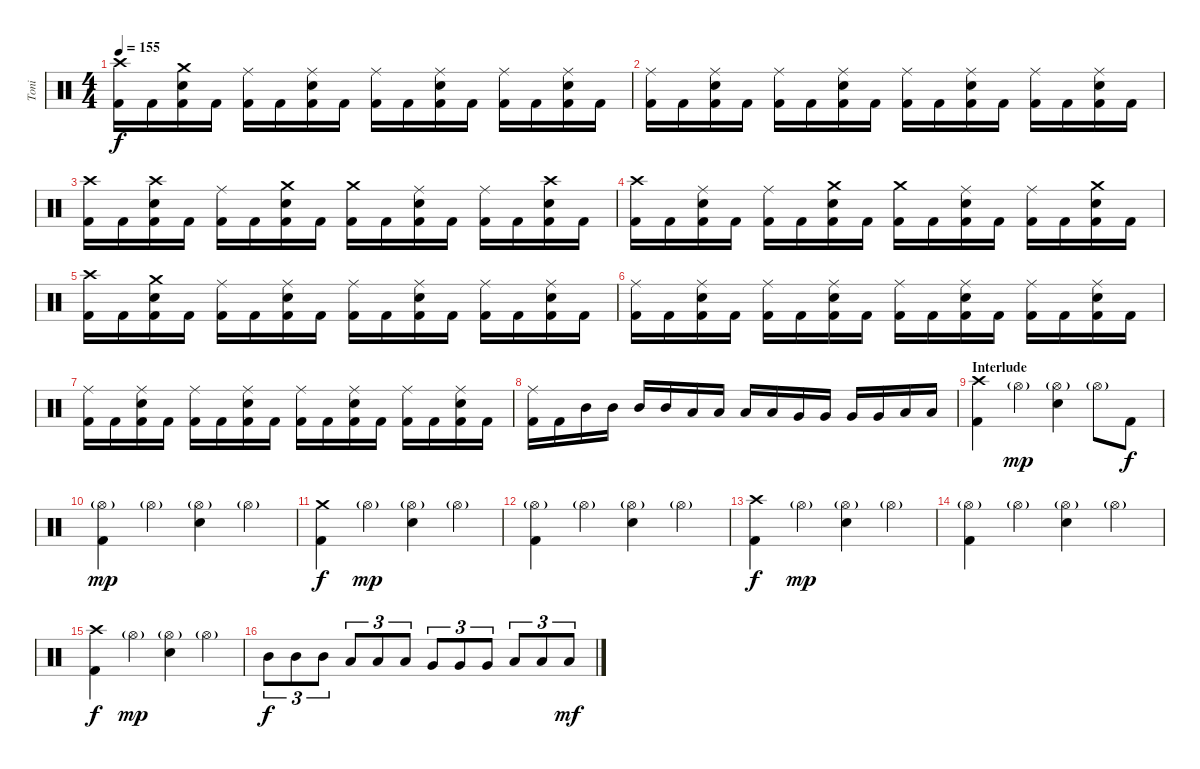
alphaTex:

\track ("Toni" "Toni") {instrument percussion}
\staff {score}
\articulation defaults
\ts (4 4)
\tempo 155
\clef neutral
\ks c
("Crash high (hit)" "Kick (hit) 2").16{dy f} "Kick (hit) 2".16 ("Crash medium (hit)" "Electric Snare (hit)" "Kick (hit) 2").16 "Kick (hit) 2".16 ("Ride (middle)" "Kick (hit) 2").16 "Kick (hit) 2".16 ("Ride (middle)" "Electric Snare (hit)" "Kick (hit) 2").16 "Kick (hit) 2".16 ("Ride (middle)" "Kick (hit) 2").16 "Kick (hit) 2".16 ("Ride (middle)" "Electric Snare (hit)" "Kick (hit) 2").16 "Kick (hit) 2".16 ("Ride (middle)" "Kick (hit) 2").16 "Kick (hit) 2".16 ("Ride (middle)" "Electric Snare (hit)" "Kick (hit) 2").16 "Kick (hit) 2".16 |
("Ride (middle)" "Kick (hit) 2").16 "Kick (hit) 2".16 ("Ride (middle)" "Electric Snare (hit)" "Kick (hit) 2").16 "Kick (hit) 2".16 ("Ride (middle)" "Kick (hit) 2").16 "Kick (hit) 2".16 ("Ride (middle)" "Electric Snare (hit)" "Kick (hit) 2").16 "Kick (hit) 2".16 ("Ride (middle)" "Kick (hit) 2").16 "Kick (hit) 2".16 ("Ride (middle)" "Electric Snare (hit)" "Kick (hit) 2").16 "Kick (hit) 2".16 ("Ride (middle)" "Kick (hit) 2").16 "Kick (hit) 2".16 ("Ride (middle)" "Electric Snare (hit)" "Kick (hit) 2").16 "Kick (hit) 2".16 |
("Crash high (hit)" "Kick (hit) 2").16 "Kick (hit) 2".16 ("Crash high (hit)" "Electric Snare (hit)" "Kick (hit) 2").16 "Kick (hit) 2".16 ("Ride (middle)" "Kick (hit) 2").16 "Kick (hit) 2".16 ("Crash medium (hit)" "Electric Snare (hit)" "Kick (hit) 2").16 "Kick (hit) 2".16 ("Crash medium (hit)" "Kick (hit) 2").16 "Kick (hit) 2".16 ("Ride (middle)" "Electric Snare (hit)" "Kick (hit) 2").16 "Kick (hit) 2".16 ("Ride (middle)" "Kick (hit) 2").16 "Kick (hit) 2".16 ("Crash high (hit)" "Electric Snare (hit)" "Kick (hit) 2").16 "Kick (hit) 2".16 |
("Crash high (hit)" "Kick (hit) 2").16 "Kick (hit) 2".16 ("Ride (middle)" "Electric Snare (hit)" "Kick (hit) 2").16 "Kick (hit) 2".16 ("Ride (middle)" "Kick (hit) 2").16 "Kick (hit) 2".16 ("Crash medium (hit)" "Electric Snare (hit)" "Kick (hit) 2").16 "Kick (hit) 2".16 ("Crash medium (hit)" "Kick (hit) 2").16 "Kick (hit) 2".16 ("Ride (middle)" "Electric Snare (hit)" "Kick (hit) 2").16 "Kick (hit) 2".16 ("Ride (middle)" "Kick (hit) 2").16 "Kick (hit) 2".16 ("Crash medium (hit)" "Electric Snare (hit)" "Kick (hit) 2").16 "Kick (hit) 2".16 |
("Crash high (hit)" "Kick (hit) 2").16 "Kick (hit) 2".16 ("Crash medium (hit)" "Electric Snare (hit)" "Kick (hit) 2").16 "Kick (hit) 2".16 ("Ride (middle)" "Kick (hit) 2").16 "Kick (hit) 2".16 ("Ride (middle)" "Electric Snare (hit)" "Kick (hit) 2").16 "Kick (hit) 2".16 ("Ride (middle)" "Kick (hit) 2").16 "Kick (hit) 2".16 ("Ride (middle)" "Electric Snare (hit)" "Kick (hit) 2").16 "Kick (hit) 2".16 ("Ride (middle)" "Kick (hit) 2").16 "Kick (hit) 2".16 ("Ride (middle)" "Electric Snare (hit)" "Kick (hit) 2").16 "Kick (hit) 2".16 |
("Ride (middle)" "Kick (hit) 2").16 "Kick (hit) 2".16 ("Ride (middle)" "Electric Snare (hit)" "Kick (hit) 2").16 "Kick (hit) 2".16 ("Ride (middle)" "Kick (hit) 2").16 "Kick (hit) 2".16 ("Ride (middle)" "Electric Snare (hit)" "Kick (hit) 2").16 "Kick (hit) 2".16 ("Ride (middle)" "Kick (hit) 2").16 "Kick (hit) 2".16 ("Ride (middle)" "Electric Snare (hit)" "Kick (hit) 2").16 "Kick (hit) 2".16 ("Ride (middle)" "Kick (hit) 2").16 "Kick (hit) 2".16 ("Ride (middle)" "Electric Snare (hit)" "Kick (hit) 2").16 "Kick (hit) 2".16 |
("Ride (middle)" "Kick (hit) 2").16 "Kick (hit) 2".16 ("Ride (middle)" "Electric Snare (hit)" "Kick (hit) 2").16 "Kick (hit) 2".16 ("Ride (middle)" "Kick (hit) 2").16 "Kick (hit) 2".16 ("Ride (middle)" "Electric Snare (hit)" "Kick (hit) 2").16 "Kick (hit) 2".16 ("Ride (middle)" "Kick (hit) 2").16 "Kick (hit) 2".16 ("Ride (middle)" "Electric Snare (hit)" "Kick (hit) 2").16 "Kick (hit) 2".16 ("Ride (middle)" "Kick (hit) 2").16 "Kick (hit) 2".16 ("Ride (middle)" "Electric Snare (hit)" "Kick (hit) 2").16 "Kick (hit) 2".16 |
("Ride (middle)" "Kick (hit) 2").16 "Kick (hit) 2".16 "Mid Tom (hit)".16 "Mid Tom (hit)".16 "Mid Tom (hit)".16 "Mid Tom (hit)".16 "Low Tom (hit)".16 "Low Tom (hit)".16 "Low Tom (hit)".16 "Low Tom (hit)".16 "Very Low Tom (hit)".16 "Very Low Tom (hit)".16 "Very Low Tom (hit)".16 "Very Low Tom (hit)".16 "Low Floor Tom (hit)".16 "Low Floor Tom (hit)".16 |
\section ("" "Interlude")
("Crash high (hit)" "Kick (hit) 2").4 "Hi-Hat (open)"{g}.4{dy mp} ("Hi-Hat (open)"{g} "Electric Snare (hit)").4 "Hi-Hat (open)"{g}.8 "Kick (hit) 2".8{dy f} |
("Hi-Hat (open)"{g} "Kick (hit) 2").4{dy mp} "Hi-Hat (open)"{g}.4 ("Hi-Hat (open)"{g} "Electric Snare (hit)").4 "Hi-Hat (open)"{g}.4 |
("Crash medium (hit)" "Kick (hit) 2").4{dy f} "Hi-Hat (open)"{g}.4{dy mp} ("Hi-Hat (open)"{g} "Electric Snare (hit)").4 "Hi-Hat (open)"{g}.4 |
("Hi-Hat (open)"{g} "Kick (hit) 2").4 "Hi-Hat (open)"{g}.4 ("Hi-Hat (open)"{g} "Electric Snare (hit)").4 "Hi-Hat (open)"{g}.4 |
("Crash high (hit)" "Kick (hit) 2").4{dy f} "Hi-Hat (open)"{g}.4{dy mp} ("Hi-Hat (open)"{g} "Electric Snare (hit)").4 "Hi-Hat (open)"{g}.4 |
("Hi-Hat (open)"{g} "Kick (hit) 2").4 "Hi-Hat (open)"{g}.4 ("Hi-Hat (open)"{g} "Electric Snare (hit)").4 "Hi-Hat (open)"{g}.4 |
("Crash high (hit)" "Kick (hit) 2").4{dy f} "Hi-Hat (open)"{g}.4{dy mp} ("Hi-Hat (open)"{g} "Electric Snare (hit)").4 "Hi-Hat (open)"{g}.4 |
"Mid Tom (hit)".8{tu (3 2) dy f} "Mid Tom (hit)".8{tu (3 2)} "Mid Tom (hit)".8{tu (3 2)} "Low Tom (hit)".8{tu (3 2)} "Low Tom (hit)".8{tu (3 2)} "Low Tom (hit)".8{tu (3 2)} "Very Low Tom (hit)".8{tu (3 2)} "Very Low Tom (hit)".8{tu (3 2)} "Very Low Tom (hit)".8{tu (3 2)} "Low Floor Tom (hit)".8{tu (3 2)} "Low Floor Tom (hit)".8{tu (3 2)} "Low Floor Tom (hit)".8{tu (3 2) dy mf}
